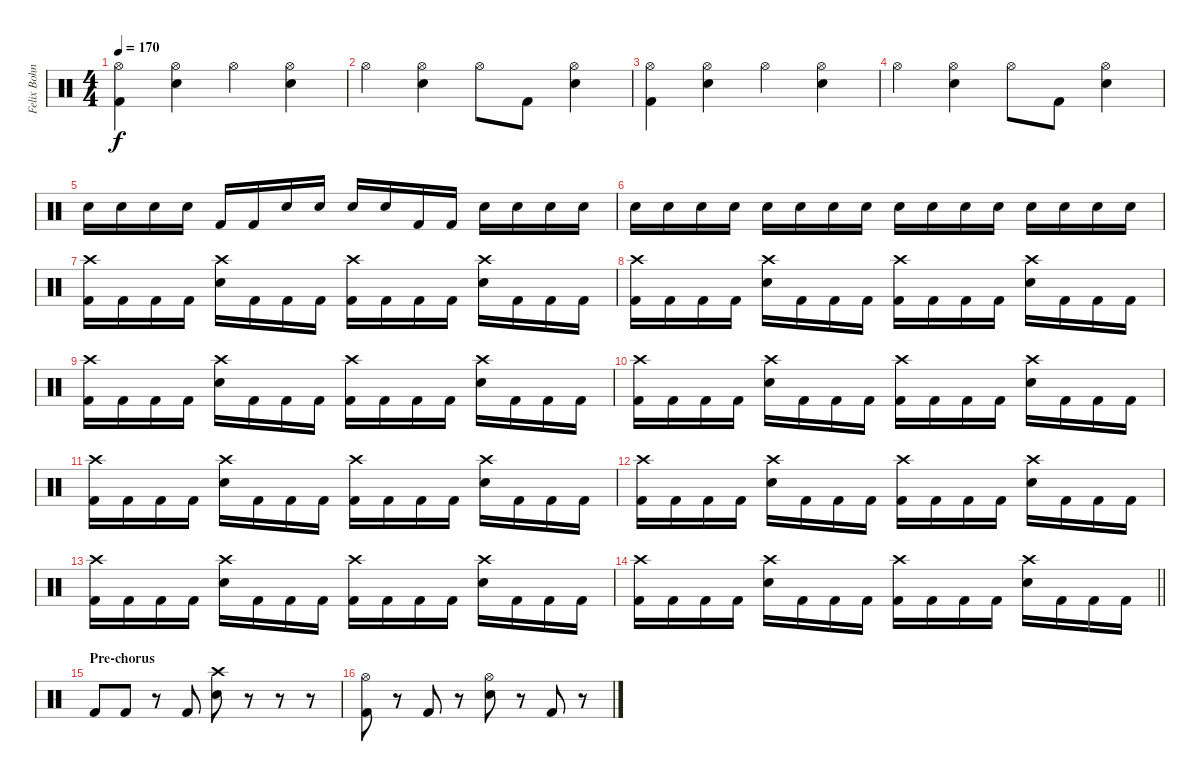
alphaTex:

\track ("Felix Bohnke - Drums" "Felix Bohn") {instrument percussion}
\staff {score}
\articulation defaults
\ts (4 4)
\tempo 170
\clef neutral
\ks c
("Hi-Hat (open)" "Kick (hit) 2").4{dy f} ("Hi-Hat (open)" "Snare (hit) 2").4 "Hi-Hat (open)".4 ("Hi-Hat (open)" "Snare (hit) 2").4 |
"Hi-Hat (open)".4 ("Hi-Hat (open)" "Snare (hit) 2").4 "Hi-Hat (open)".8 "Kick (hit) 2".8 ("Hi-Hat (open)" "Snare (hit) 2").4 |
("Hi-Hat (open)" "Kick (hit) 2").4 ("Hi-Hat (open)" "Snare (hit) 2").4 "Hi-Hat (open)".4 ("Hi-Hat (open)" "Snare (hit) 2").4 |
"Hi-Hat (open)".4 ("Hi-Hat (open)" "Snare (hit) 2").4 "Hi-Hat (open)".8 "Kick (hit) 2".8 ("Hi-Hat (open)" "Snare (hit) 2").4 |
"Snare (hit) 2".16 "Snare (hit) 2".16 "Snare (hit) 2".16 "Snare (hit) 2".16 "Kick (hit) 2".16 "Kick (hit) 2".16 "Snare (hit) 2".16 "Snare (hit) 2".16 "Snare (hit) 2".16 "Snare (hit) 2".16 "Kick (hit) 2".16 "Kick (hit) 2".16 "Snare (hit) 2".16 "Snare (hit) 2".16 "Snare (hit) 2".16 "Snare (hit) 2".16 |
"Snare (hit) 2".16{volume 1} "Snare (hit) 2".16{volume 3} "Snare (hit) 2".16{volume 5} "Snare (hit) 2".16{volume 7} "Snare (hit) 2".16{volume 9} "Snare (hit) 2".16{volume 11} "Snare (hit) 2".16{volume 13} "Snare (hit) 2".16{volume 14} "Snare (hit) 2".16 "Snare (hit) 2".16 "Snare (hit) 2".16 "Snare (hit) 2".16 "Snare (hit) 2".16 "Snare (hit) 2".16 "Snare (hit) 2".16 "Snare (hit) 2".16 |
("Crash high (hit)" "Kick (hit) 2").16 "Kick (hit) 2".16 "Kick (hit) 2".16 "Kick (hit) 2".16 ("Crash high (hit)" "Electric Snare (hit)").16 "Kick (hit) 2".16 "Kick (hit) 2".16 "Kick (hit) 2".16 ("Crash high (hit)" "Kick (hit) 2").16 "Kick (hit) 2".16 "Kick (hit) 2".16 "Kick (hit) 2".16 ("Crash high (hit)" "Electric Snare (hit)").16 "Kick (hit) 2".16 "Kick (hit) 2".16 "Kick (hit) 2".16 |
("Crash high (hit)" "Kick (hit) 2").16 "Kick (hit) 2".16 "Kick (hit) 2".16 "Kick (hit) 2".16 ("Crash high (hit)" "Electric Snare (hit)").16 "Kick (hit) 2".16 "Kick (hit) 2".16 "Kick (hit) 2".16 ("Crash high (hit)" "Kick (hit) 2").16 "Kick (hit) 2".16 "Kick (hit) 2".16 "Kick (hit) 2".16 ("Crash high (hit)" "Electric Snare (hit)").16 "Kick (hit) 2".16 "Kick (hit) 2".16 "Kick (hit) 2".16 |
("Crash high (hit)" "Kick (hit) 2").16 "Kick (hit) 2".16 "Kick (hit) 2".16 "Kick (hit) 2".16 ("Crash high (hit)" "Electric Snare (hit)").16 "Kick (hit) 2".16 "Kick (hit) 2".16 "Kick (hit) 2".16 ("Crash high (hit)" "Kick (hit) 2").16 "Kick (hit) 2".16 "Kick (hit) 2".16 "Kick (hit) 2".16 ("Crash high (hit)" "Electric Snare (hit)").16 "Kick (hit) 2".16 "Kick (hit) 2".16 "Kick (hit) 2".16 |
("Crash high (hit)" "Kick (hit) 2").16 "Kick (hit) 2".16 "Kick (hit) 2".16 "Kick (hit) 2".16 ("Crash high (hit)" "Electric Snare (hit)").16 "Kick (hit) 2".16 "Kick (hit) 2".16 "Kick (hit) 2".16 ("Crash high (hit)" "Kick (hit) 2").16 "Kick (hit) 2".16 "Kick (hit) 2".16 "Kick (hit) 2".16 ("Crash high (hit)" "Electric Snare (hit)").16 "Kick (hit) 2".16 "Kick (hit) 2".16 "Kick (hit) 2".16 |
("Crash high (hit)" "Kick (hit) 2").16 "Kick (hit) 2".16 "Kick (hit) 2".16 "Kick (hit) 2".16 ("Crash high (hit)" "Electric Snare (hit)").16 "Kick (hit) 2".16 "Kick (hit) 2".16 "Kick (hit) 2".16 ("Crash high (hit)" "Kick (hit) 2").16 "Kick (hit) 2".16 "Kick (hit) 2".16 "Kick (hit) 2".16 ("Crash high (hit)" "Electric Snare (hit)").16 "Kick (hit) 2".16 "Kick (hit) 2".16 "Kick (hit) 2".16 |
("Crash high (hit)" "Kick (hit) 2").16 "Kick (hit) 2".16 "Kick (hit) 2".16 "Kick (hit) 2".16 ("Crash high (hit)" "Electric Snare (hit)").16 "Kick (hit) 2".16 "Kick (hit) 2".16 "Kick (hit) 2".16 ("Crash high (hit)" "Kick (hit) 2").16 "Kick (hit) 2".16 "Kick (hit) 2".16 "Kick (hit) 2".16 ("Crash high (hit)" "Electric Snare (hit)").16 "Kick (hit) 2".16 "Kick (hit) 2".16 "Kick (hit) 2".16 |
("Crash high (hit)" "Kick (hit) 2").16 "Kick (hit) 2".16 "Kick (hit) 2".16 "Kick (hit) 2".16 ("Crash high (hit)" "Electric Snare (hit)").16 "Kick (hit) 2".16 "Kick (hit) 2".16 "Kick (hit) 2".16 ("Crash high (hit)" "Kick (hit) 2").16 "Kick (hit) 2".16 "Kick (hit) 2".16 "Kick (hit) 2".16 ("Crash high (hit)" "Electric Snare (hit)").16 "Kick (hit) 2".16 "Kick (hit) 2".16 "Kick (hit) 2".16 |
\barLineRight lightlight
("Crash high (hit)" "Kick (hit) 2").16 "Kick (hit) 2".16 "Kick (hit) 2".16 "Kick (hit) 2".16 ("Crash high (hit)" "Electric Snare (hit)").16 "Kick (hit) 2".16 "Kick (hit) 2".16 "Kick (hit) 2".16 ("Crash high (hit)" "Kick (hit) 2").16 "Kick (hit) 2".16 "Kick (hit) 2".16 "Kick (hit) 2".16 ("Crash high (hit)" "Electric Snare (hit)").16 "Kick (hit) 2".16 "Kick (hit) 2".16 "Kick (hit) 2".16 |
\section ("" "Pre-chorus")
"Kick (hit) 2".8 "Kick (hit) 2".8 r.8 "Kick (hit) 2".8 ("Crash high (hit)" "Electric Snare (hit)").8 r.8 r.8 r.8 |
("Hi-Hat (open)" "Kick (hit) 2").8 r.8 "Kick (hit) 2".8 r.8 ("Hi-Hat (open)" "Electric Snare (hit)").8 r.8 "Kick (hit) 2".8 r.8
